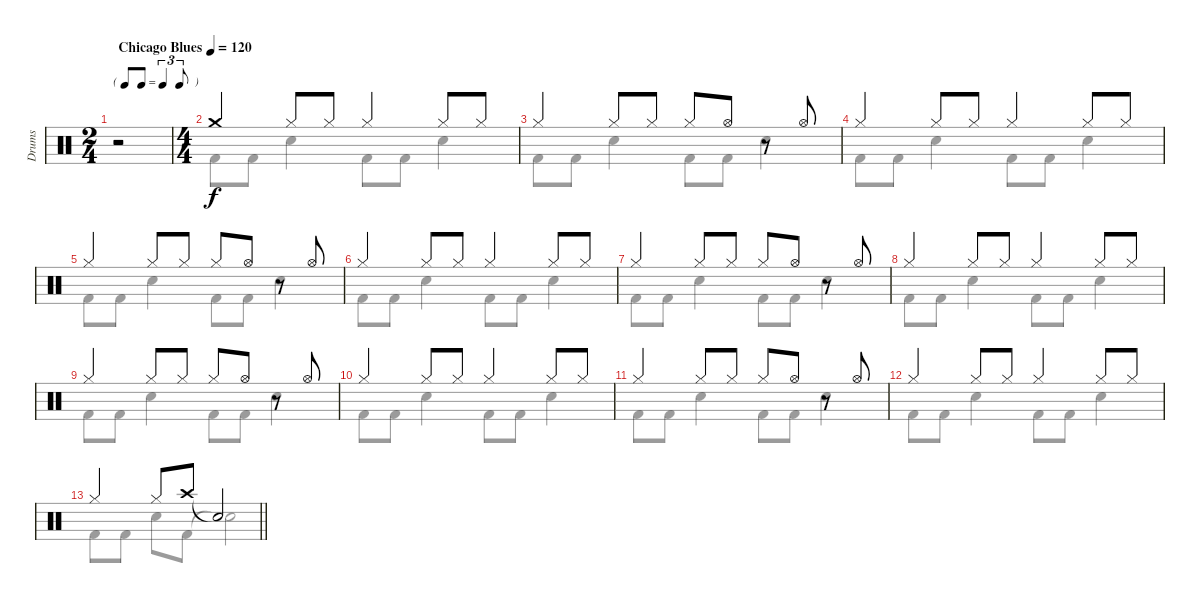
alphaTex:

\track ("Drums" "Drums") {instrument percussion}
\staff {score}
\articulation defaults
\voice
\ts (2 4)
\tf triplet8th
\tempo (120 "Chicago Blues")
\clef neutral
\ks c
r.2{dy f} |
\ts (4 4)
"Crash medium (hit)".4 "Hi-Hat (closed)".8 "Hi-Hat (closed)".8 "Hi-Hat (closed)".4 "Hi-Hat (closed)".8 "Hi-Hat (closed)".8 |
"Hi-Hat (closed)".4 "Hi-Hat (closed)".8 "Hi-Hat (closed)".8 "Hi-Hat (closed)".8 "Hi-Hat (open)".8 r.8 "Hi-Hat (open)".8 |
"Hi-Hat (closed)".4 "Hi-Hat (closed)".8 "Hi-Hat (closed)".8 "Hi-Hat (closed)".4 "Hi-Hat (closed)".8 "Hi-Hat (closed)".8 |
"Hi-Hat (closed)".4 "Hi-Hat (closed)".8 "Hi-Hat (closed)".8 "Hi-Hat (closed)".8 "Hi-Hat (open)".8 r.8 "Hi-Hat (open)".8 |
"Hi-Hat (closed)".4 "Hi-Hat (closed)".8 "Hi-Hat (closed)".8 "Hi-Hat (closed)".4 "Hi-Hat (closed)".8 "Hi-Hat (closed)".8 |
"Hi-Hat (closed)".4 "Hi-Hat (closed)".8 "Hi-Hat (closed)".8 "Hi-Hat (closed)".8 "Hi-Hat (open)".8 r.8 "Hi-Hat (open)".8 |
"Hi-Hat (closed)".4 "Hi-Hat (closed)".8 "Hi-Hat (closed)".8 "Hi-Hat (closed)".4 "Hi-Hat (closed)".8 "Hi-Hat (closed)".8 |
"Hi-Hat (closed)".4 "Hi-Hat (closed)".8 "Hi-Hat (closed)".8 "Hi-Hat (closed)".8 "Hi-Hat (open)".8 r.8 "Hi-Hat (open)".8 |
"Hi-Hat (closed)".4 "Hi-Hat (closed)".8 "Hi-Hat (closed)".8 "Hi-Hat (closed)".4 "Hi-Hat (closed)".8 "Hi-Hat (closed)".8 |
"Hi-Hat (closed)".4 "Hi-Hat (closed)".8 "Hi-Hat (closed)".8 "Hi-Hat (closed)".8 "Hi-Hat (open)".8 r.8 "Hi-Hat (open)".8 |
"Hi-Hat (closed)".4 "Hi-Hat (closed)".8 "Hi-Hat (closed)".8 "Hi-Hat (closed)".4 "Hi-Hat (closed)".8 "Hi-Hat (closed)".8 |
\barLineRight lightlight "Hi-Hat (closed)".4 "Hi-Hat (closed)".8 "Crash high (hit)".8 "Snare (hit)"{t}.2{volume 0}
\voice
\clef neutral
\ottava regular
\simile none
\ks c
|
"Kick (hit) 2".8 "Kick (hit) 2".8 "Electric Snare (hit)".4 "Kick (hit) 2".8 "Kick (hit) 2".8 "Electric Snare (hit)".4 |
"Kick (hit) 2".8 "Kick (hit) 2".8 "Electric Snare (hit)".4 "Kick (hit) 2".8 "Kick (hit) 2".8 "Electric Snare (hit)".4 |
"Kick (hit) 2".8 "Kick (hit) 2".8 "Electric Snare (hit)".4 "Kick (hit) 2".8 "Kick (hit) 2".8 "Electric Snare (hit)".4 |
"Kick (hit) 2".8 "Kick (hit) 2".8 "Electric Snare (hit)".4 "Kick (hit) 2".8 "Kick (hit) 2".8 "Electric Snare (hit)".4 |
"Kick (hit) 2".8 "Kick (hit) 2".8 "Electric Snare (hit)".4 "Kick (hit) 2".8 "Kick (hit) 2".8 "Electric Snare (hit)".4 |
"Kick (hit) 2".8 "Kick (hit) 2".8 "Electric Snare (hit)".4 "Kick (hit) 2".8 "Kick (hit) 2".8 "Electric Snare (hit)".4 |
"Kick (hit) 2".8 "Kick (hit) 2".8 "Electric Snare (hit)".4 "Kick (hit) 2".8 "Kick (hit) 2".8 "Electric Snare (hit)".4 |
"Kick (hit) 2".8 "Kick (hit) 2".8 "Electric Snare (hit)".4 "Kick (hit) 2".8 "Kick (hit) 2".8 "Electric Snare (hit)".4 |
"Kick (hit) 2".8 "Kick (hit) 2".8 "Electric Snare (hit)".4 "Kick (hit) 2".8 "Kick (hit) 2".8 "Electric Snare (hit)".4 |
"Kick (hit) 2".8 "Kick (hit) 2".8 "Electric Snare (hit)".4 "Kick (hit) 2".8 "Kick (hit) 2".8 "Electric Snare (hit)".4 |
"Kick (hit) 2".8 "Kick (hit) 2".8 "Electric Snare (hit)".4 "Kick (hit) 2".8 "Kick (hit) 2".8 "Electric Snare (hit)".4 |
\barLineRight lightlight "Kick (hit) 2".8 "Kick (hit) 2".8 "Electric Snare (hit)".8 "Kick (hit) 2".8 "Snare (hit)"{t}.2
